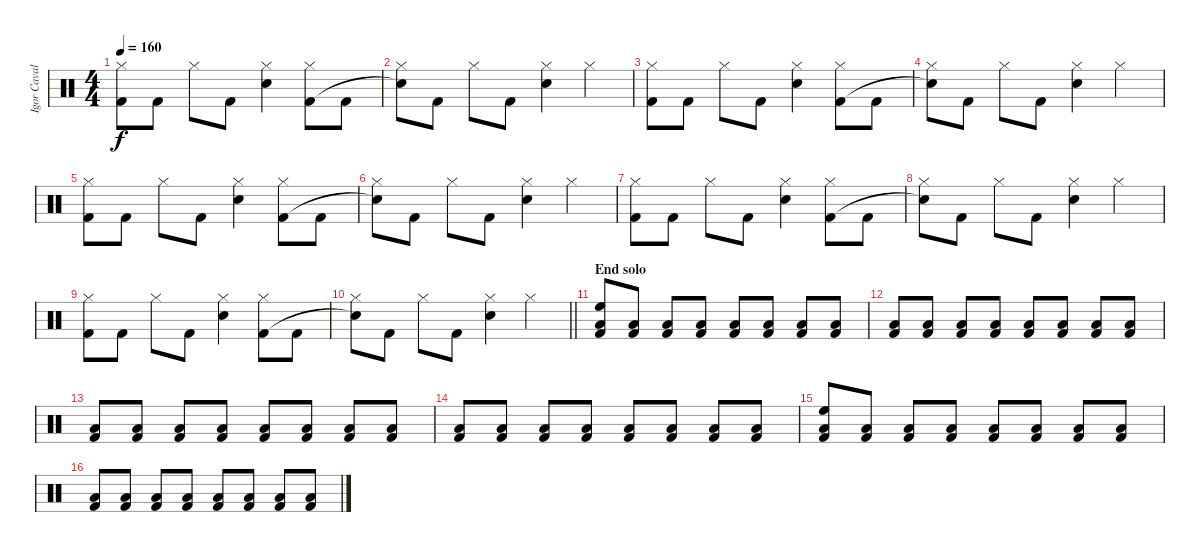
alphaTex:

\track ("Igor Cavalera" "Igor Caval") {instrument percussion}
\staff {score}
\articulation defaults
\ts (4 4)
\tempo 160
\clef neutral
\ks c
("Hi-Hat (closed)" "Kick (hit) 2").8{dy f} "Kick (hit) 2".8 "Hi-Hat (closed)".8 "Kick (hit) 2".8 ("Hi-Hat (closed)" "Snare (hit) 2").4 ("Hi-Hat (closed)" "Kick (hit) 2").8 "Kick (hit) 2".8 |
("Hi-Hat (closed)" "Snare (hit)"{t}).8 "Kick (hit) 2".8 "Hi-Hat (closed)".8 "Kick (hit) 2".8 ("Hi-Hat (closed)" "Snare (hit) 2").4 "Hi-Hat (closed)".4 |
("Hi-Hat (closed)" "Kick (hit) 2").8 "Kick (hit) 2".8 "Hi-Hat (closed)".8 "Kick (hit) 2".8 ("Hi-Hat (closed)" "Snare (hit) 2").4 ("Hi-Hat (closed)" "Kick (hit) 2").8 "Kick (hit) 2".8 |
("Hi-Hat (closed)" "Snare (hit)"{t}).8 "Kick (hit) 2".8 "Hi-Hat (closed)".8 "Kick (hit) 2".8 ("Hi-Hat (closed)" "Snare (hit) 2").4 "Hi-Hat (closed)".4 |
("Hi-Hat (closed)" "Kick (hit) 2").8 "Kick (hit) 2".8 "Hi-Hat (closed)".8 "Kick (hit) 2".8 ("Hi-Hat (closed)" "Snare (hit) 2").4 ("Hi-Hat (closed)" "Kick (hit) 2").8 "Kick (hit) 2".8 |
("Hi-Hat (closed)" "Snare (hit)"{t}).8 "Kick (hit) 2".8 "Hi-Hat (closed)".8 "Kick (hit) 2".8 ("Hi-Hat (closed)" "Snare (hit) 2").4 "Hi-Hat (closed)".4 |
("Hi-Hat (closed)" "Kick (hit) 2").8 "Kick (hit) 2".8 "Hi-Hat (closed)".8 "Kick (hit) 2".8 ("Hi-Hat (closed)" "Snare (hit) 2").4 ("Hi-Hat (closed)" "Kick (hit) 2").8 "Kick (hit) 2".8 |
("Hi-Hat (closed)" "Snare (hit)"{t}).8 "Kick (hit) 2".8 "Hi-Hat (closed)".8 "Kick (hit) 2".8 ("Hi-Hat (closed)" "Snare (hit) 2").4 "Hi-Hat (closed)".4 |
("Hi-Hat (closed)" "Kick (hit) 2").8 "Kick (hit) 2".8 "Hi-Hat (closed)".8 "Kick (hit) 2".8 ("Hi-Hat (closed)" "Snare (hit) 2").4 ("Hi-Hat (closed)" "Kick (hit) 2").8 "Kick (hit) 2".8 |
\barLineRight lightlight
("Hi-Hat (closed)" "Snare (hit)"{t}).8 "Kick (hit) 2".8 "Hi-Hat (closed)".8 "Kick (hit) 2".8 ("Hi-Hat (closed)" "Snare (hit) 2").4 "Hi-Hat (closed)".4 |
\section ("" "End solo")
("High Floor Tom (hit)" "Low Tom (hit)" "Kick (hit) 2").8 ("Low Tom (hit)" "Kick (hit) 2").8 ("Low Tom (hit)" "Kick (hit) 2").8 ("Low Tom (hit)" "Kick (hit) 2").8 ("Low Tom (hit)" "Kick (hit) 2").8 ("Low Tom (hit)" "Kick (hit) 2").8 ("Low Tom (hit)" "Kick (hit) 2").8 ("Low Tom (hit)" "Kick (hit) 2").8 |
("Low Tom (hit)" "Kick (hit) 2").8 ("Low Tom (hit)" "Kick (hit) 2").8 ("Low Tom (hit)" "Kick (hit) 2").8 ("Low Tom (hit)" "Kick (hit) 2").8 ("Low Tom (hit)" "Kick (hit) 2").8 ("Low Tom (hit)" "Kick (hit) 2").8 ("Low Tom (hit)" "Kick (hit) 2").8 ("Low Tom (hit)" "Kick (hit) 2").8 |
("Low Tom (hit)" "Kick (hit) 2").8 ("Low Tom (hit)" "Kick (hit) 2").8 ("Low Tom (hit)" "Kick (hit) 2").8 ("Low Tom (hit)" "Kick (hit) 2").8 ("Low Tom (hit)" "Kick (hit) 2").8 ("Low Tom (hit)" "Kick (hit) 2").8 ("Low Tom (hit)" "Kick (hit) 2").8 ("Low Tom (hit)" "Kick (hit) 2").8 |
("Low Tom (hit)" "Kick (hit) 2").8 ("Low Tom (hit)" "Kick (hit) 2").8 ("Low Tom (hit)" "Kick (hit) 2").8 ("Low Tom (hit)" "Kick (hit) 2").8 ("Low Tom (hit)" "Kick (hit) 2").8 ("Low Tom (hit)" "Kick (hit) 2").8 ("Low Tom (hit)" "Kick (hit) 2").8 ("Low Tom (hit)" "Kick (hit) 2").8 |
("High Floor Tom (hit)" "Low Tom (hit)" "Kick (hit) 2").8 ("Low Tom (hit)" "Kick (hit) 2").8 ("Low Tom (hit)" "Kick (hit) 2").8 ("Low Tom (hit)" "Kick (hit) 2").8 ("Low Tom (hit)" "Kick (hit) 2").8 ("Low Tom (hit)" "Kick (hit) 2").8 ("Low Tom (hit)" "Kick (hit) 2").8 ("Low Tom (hit)" "Kick (hit) 2").8 |
("Low Tom (hit)" "Kick (hit) 2").8 ("Low Tom (hit)" "Kick (hit) 2").8 ("Low Tom (hit)" "Kick (hit) 2").8 ("Low Tom (hit)" "Kick (hit) 2").8 ("Low Tom (hit)" "Kick (hit) 2").8 ("Low Tom (hit)" "Kick (hit) 2").8 ("Low Tom (hit)" "Kick (hit) 2").8 ("Low Tom (hit)" "Kick (hit) 2").8
